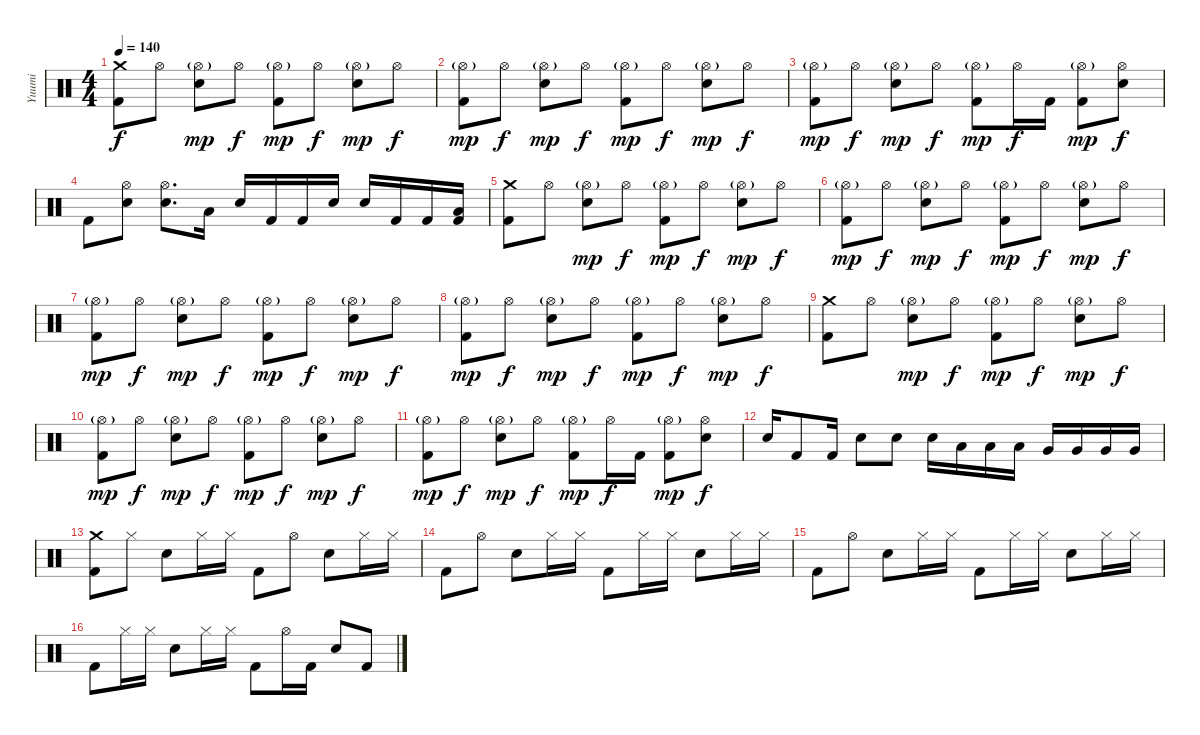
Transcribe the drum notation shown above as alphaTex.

\track ("Yuumi" "Yuumi") {instrument percussion}
\staff {score}
\articulation defaults
\ts (4 4)
\tempo 140
\clef neutral
\ks c
("Crash medium (hit)" "Kick (hit) 2").8{dy f} "Hi-Hat (open)".8 ("Hi-Hat (open)"{g} "Electric Snare (hit)").8{dy mp} "Hi-Hat (open)".8{dy f} ("Hi-Hat (open)"{g} "Kick (hit) 2").8{dy mp} "Hi-Hat (open)".8{dy f} ("Hi-Hat (open)"{g} "Electric Snare (hit)").8{dy mp} "Hi-Hat (open)".8{dy f} |
("Hi-Hat (open)"{g} "Kick (hit) 2").8{dy mp} "Hi-Hat (open)".8{dy f} ("Hi-Hat (open)"{g} "Electric Snare (hit)").8{dy mp} "Hi-Hat (open)".8{dy f} ("Hi-Hat (open)"{g} "Kick (hit) 2").8{dy mp} "Hi-Hat (open)".8{dy f} ("Hi-Hat (open)"{g} "Electric Snare (hit)").8{dy mp} "Hi-Hat (open)".8{dy f} |
("Hi-Hat (open)"{g} "Kick (hit) 2").8{dy mp} "Hi-Hat (open)".8{dy f} ("Hi-Hat (open)"{g} "Electric Snare (hit)").8{dy mp} "Hi-Hat (open)".8{dy f} ("Hi-Hat (open)"{g} "Kick (hit) 2").8{dy mp} "Hi-Hat (open)".16{dy f} "Kick (hit) 2".16 ("Hi-Hat (open)"{g} "Kick (hit) 2").8{dy mp} ("Hi-Hat (open)" "Electric Snare (hit)").8{dy f} |
"Kick (hit) 2".8 ("Hi-Hat (open)" "Electric Snare (hit)").8 ("Hi-Hat (open)" "Electric Snare (hit)").8{d} "Low Tom (hit)".16 "Electric Snare (hit)".16 "Kick (hit) 2".16 "Kick (hit) 2".16 "Electric Snare (hit)".16 "Electric Snare (hit)".16 "Kick (hit) 2".16 "Kick (hit) 2".16 ("Low Tom (hit)" "Kick (hit) 2").16 |
("Crash medium (hit)" "Kick (hit) 2").8 "Hi-Hat (open)".8 ("Hi-Hat (open)"{g} "Electric Snare (hit)").8{dy mp} "Hi-Hat (open)".8{dy f} ("Hi-Hat (open)"{g} "Kick (hit) 2").8{dy mp} "Hi-Hat (open)".8{dy f} ("Hi-Hat (open)"{g} "Electric Snare (hit)").8{dy mp} "Hi-Hat (open)".8{dy f} |
("Hi-Hat (open)"{g} "Kick (hit) 2").8{dy mp} "Hi-Hat (open)".8{dy f} ("Hi-Hat (open)"{g} "Electric Snare (hit)").8{dy mp} "Hi-Hat (open)".8{dy f} ("Hi-Hat (open)"{g} "Kick (hit) 2").8{dy mp} "Hi-Hat (open)".8{dy f} ("Hi-Hat (open)"{g} "Electric Snare (hit)").8{dy mp} "Hi-Hat (open)".8{dy f} |
("Hi-Hat (open)"{g} "Kick (hit) 2").8{dy mp} "Hi-Hat (open)".8{dy f} ("Hi-Hat (open)"{g} "Electric Snare (hit)").8{dy mp} "Hi-Hat (open)".8{dy f} ("Hi-Hat (open)"{g} "Kick (hit) 2").8{dy mp} "Hi-Hat (open)".8{dy f} ("Hi-Hat (open)"{g} "Electric Snare (hit)").8{dy mp} "Hi-Hat (open)".8{dy f} |
("Hi-Hat (open)"{g} "Kick (hit) 2").8{dy mp} "Hi-Hat (open)".8{dy f} ("Hi-Hat (open)"{g} "Electric Snare (hit)").8{dy mp} "Hi-Hat (open)".8{dy f} ("Hi-Hat (open)"{g} "Kick (hit) 2").8{dy mp} "Hi-Hat (open)".8{dy f} ("Hi-Hat (open)"{g} "Electric Snare (hit)").8{dy mp} "Hi-Hat (open)".8{dy f} |
("Crash medium (hit)" "Kick (hit) 2").8 "Hi-Hat (open)".8 ("Hi-Hat (open)"{g} "Electric Snare (hit)").8{dy mp} "Hi-Hat (open)".8{dy f} ("Hi-Hat (open)"{g} "Kick (hit) 2").8{dy mp} "Hi-Hat (open)".8{dy f} ("Hi-Hat (open)"{g} "Electric Snare (hit)").8{dy mp} "Hi-Hat (open)".8{dy f} |
("Hi-Hat (open)"{g} "Kick (hit) 2").8{dy mp} "Hi-Hat (open)".8{dy f} ("Hi-Hat (open)"{g} "Electric Snare (hit)").8{dy mp} "Hi-Hat (open)".8{dy f} ("Hi-Hat (open)"{g} "Kick (hit) 2").8{dy mp} "Hi-Hat (open)".8{dy f} ("Hi-Hat (open)"{g} "Electric Snare (hit)").8{dy mp} "Hi-Hat (open)".8{dy f} |
("Hi-Hat (open)"{g} "Kick (hit) 2").8{dy mp} "Hi-Hat (open)".8{dy f} ("Hi-Hat (open)"{g} "Electric Snare (hit)").8{dy mp} "Hi-Hat (open)".8{dy f} ("Hi-Hat (open)"{g} "Kick (hit) 2").8{dy mp} "Hi-Hat (open)".16{dy f} "Kick (hit) 2".16 ("Hi-Hat (open)"{g} "Kick (hit) 2").8{dy mp} ("Hi-Hat (open)" "Electric Snare (hit)").8{dy f} |
"Electric Snare (hit)".16 "Kick (hit) 2".8 "Kick (hit) 2".16 "Electric Snare (hit)".8 "Electric Snare (hit)".8 "Electric Snare (hit)".16 "Low Tom (hit)".16 "Low Tom (hit)".16 "Low Tom (hit)".16 "Very Low Tom (hit)".16 "Very Low Tom (hit)".16 "Very Low Tom (hit)".16 "Very Low Tom (hit)".16 |
("Crash medium (hit)" "Kick (hit) 2").8 "Hi-Hat (closed)".8 "Electric Snare (hit)".8 "Hi-Hat (closed)".16 "Hi-Hat (closed)".16 "Kick (hit) 2".8 "Hi-Hat (open)".8 "Electric Snare (hit)".8 "Hi-Hat (closed)".16 "Hi-Hat (closed)".16 |
"Kick (hit) 2".8 "Hi-Hat (open)".8 "Electric Snare (hit)".8 "Hi-Hat (closed)".16 "Hi-Hat (closed)".16 "Kick (hit) 2".8 "Hi-Hat (closed)".16 "Hi-Hat (closed)".16 "Electric Snare (hit)".8 "Hi-Hat (closed)".16 "Hi-Hat (closed)".16 |
"Kick (hit) 2".8 "Hi-Hat (open)".8 "Electric Snare (hit)".8 "Hi-Hat (closed)".16 "Hi-Hat (closed)".16 "Kick (hit) 2".8 "Hi-Hat (closed)".16 "Hi-Hat (closed)".16 "Electric Snare (hit)".8 "Hi-Hat (closed)".16 "Hi-Hat (closed)".16 |
"Kick (hit) 2".8 "Hi-Hat (closed)".16 "Hi-Hat (closed)".16 "Electric Snare (hit)".8 "Hi-Hat (closed)".16 "Hi-Hat (closed)".16 "Kick (hit) 2".8 "Hi-Hat (open)".16 "Kick (hit) 2".16 "Electric Snare (hit)".8 "Kick (hit) 2".8
